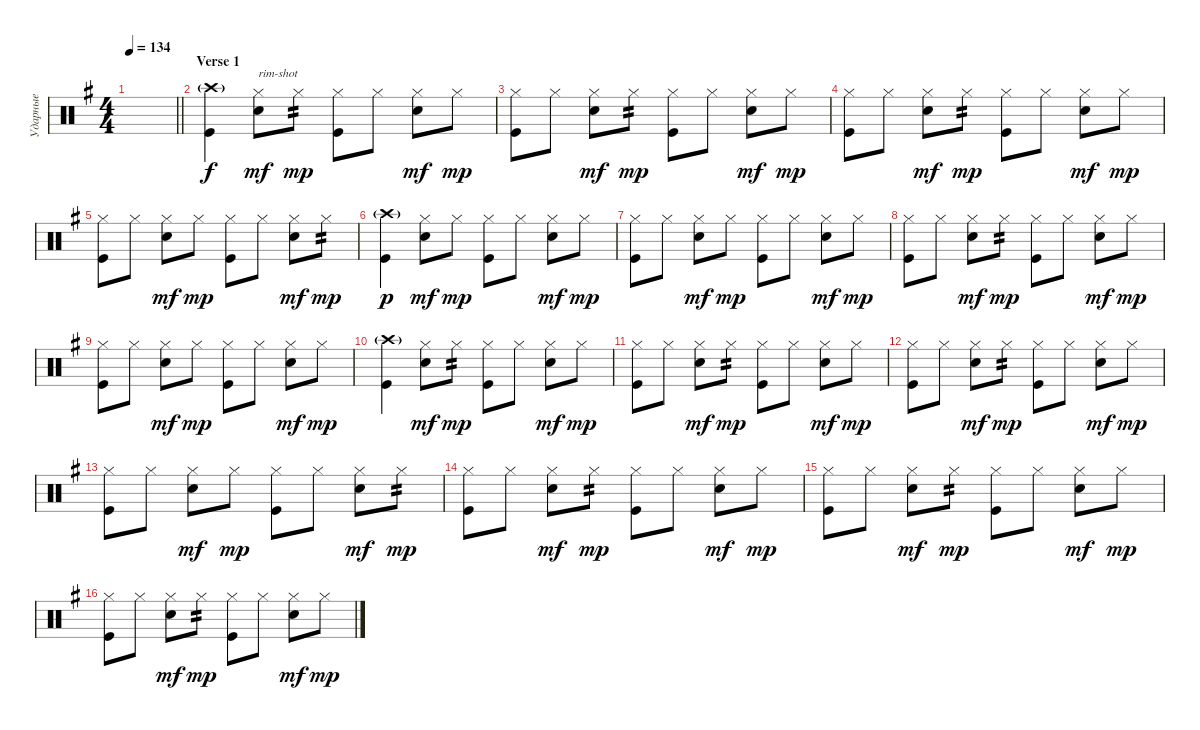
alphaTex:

\track ("Ударные" "Ударные") {instrument percussion}
\staff {score}
\articulation defaults
\ts (4 4)
\tempo 134
\clef neutral
\barLineRight lightlight
\ks eminor
|
\section ("" "Verse 1")
("Kick (hit)" "Crash high (hit)"{g}).4 ("Hi-Hat (closed)" "Electric Snare (hit)").8{txt "rim-shot" dy mf} "Hi-Hat (closed)".8{tp 2 dy mp} ("Hi-Hat (closed)" "Kick (hit)").8 "Hi-Hat (closed)".8 ("Hi-Hat (closed)" "Electric Snare (hit)").8{dy mf} "Hi-Hat (closed)".8{dy mp} |
("Hi-Hat (closed)" "Kick (hit)").8 "Hi-Hat (closed)".8 ("Hi-Hat (closed)" "Electric Snare (hit)").8{dy mf} "Hi-Hat (closed)".8{tp 2 dy mp} ("Hi-Hat (closed)" "Kick (hit)").8 "Hi-Hat (closed)".8 ("Hi-Hat (closed)" "Electric Snare (hit)").8{dy mf} "Hi-Hat (closed)".8{dy mp} |
("Hi-Hat (closed)" "Kick (hit)").8 "Hi-Hat (closed)".8 ("Hi-Hat (closed)" "Electric Snare (hit)").8{dy mf} "Hi-Hat (closed)".8{tp 2 dy mp} ("Hi-Hat (closed)" "Kick (hit)").8 "Hi-Hat (closed)".8 ("Hi-Hat (closed)" "Electric Snare (hit)").8{dy mf} "Hi-Hat (closed)".8{dy mp} |
("Hi-Hat (closed)" "Kick (hit)").8 "Hi-Hat (closed)".8 ("Hi-Hat (closed)" "Electric Snare (hit)").8{dy mf} "Hi-Hat (closed)".8{dy mp} ("Hi-Hat (closed)" "Kick (hit)").8 "Hi-Hat (closed)".8 ("Hi-Hat (closed)" "Electric Snare (hit)").8{dy mf} "Hi-Hat (closed)".8{tp 2 dy mp} |
("Kick (hit)" "Crash high (hit)"{g}).4{dy p} ("Hi-Hat (closed)" "Electric Snare (hit)").8{dy mf} "Hi-Hat (closed)".8{dy mp} ("Hi-Hat (closed)" "Kick (hit)").8 "Hi-Hat (closed)".8 ("Hi-Hat (closed)" "Electric Snare (hit)").8{dy mf} "Hi-Hat (closed)".8{dy mp} |
("Hi-Hat (closed)" "Kick (hit)").8 "Hi-Hat (closed)".8 ("Hi-Hat (closed)" "Electric Snare (hit)").8{dy mf} "Hi-Hat (closed)".8{dy mp} ("Hi-Hat (closed)" "Kick (hit)").8 "Hi-Hat (closed)".8 ("Hi-Hat (closed)" "Electric Snare (hit)").8{dy mf} "Hi-Hat (closed)".8{dy mp} |
("Hi-Hat (closed)" "Kick (hit)").8 "Hi-Hat (closed)".8 ("Hi-Hat (closed)" "Electric Snare (hit)").8{dy mf} "Hi-Hat (closed)".8{tp 2 dy mp} ("Hi-Hat (closed)" "Kick (hit)").8 "Hi-Hat (closed)".8 ("Hi-Hat (closed)" "Electric Snare (hit)").8{dy mf} "Hi-Hat (closed)".8{dy mp} |
("Hi-Hat (closed)" "Kick (hit)").8 "Hi-Hat (closed)".8 ("Hi-Hat (closed)" "Electric Snare (hit)").8{dy mf} "Hi-Hat (closed)".8{dy mp} ("Hi-Hat (closed)" "Kick (hit)").8 "Hi-Hat (closed)".8 ("Hi-Hat (closed)" "Electric Snare (hit)").8{dy mf} "Hi-Hat (closed)".8{dy mp} |
("Kick (hit)" "Crash high (hit)"{g}).4 ("Hi-Hat (closed)" "Electric Snare (hit)").8{dy mf} "Hi-Hat (closed)".8{tp 2 dy mp} ("Hi-Hat (closed)" "Kick (hit)").8 "Hi-Hat (closed)".8 ("Hi-Hat (closed)" "Electric Snare (hit)").8{dy mf} "Hi-Hat (closed)".8{dy mp} |
("Hi-Hat (closed)" "Kick (hit)").8 "Hi-Hat (closed)".8 ("Hi-Hat (closed)" "Electric Snare (hit)").8{dy mf} "Hi-Hat (closed)".8{tp 2 dy mp} ("Hi-Hat (closed)" "Kick (hit)").8 "Hi-Hat (closed)".8 ("Hi-Hat (closed)" "Electric Snare (hit)").8{dy mf} "Hi-Hat (closed)".8{dy mp} |
("Hi-Hat (closed)" "Kick (hit)").8 "Hi-Hat (closed)".8 ("Hi-Hat (closed)" "Electric Snare (hit)").8{dy mf} "Hi-Hat (closed)".8{tp 2 dy mp} ("Hi-Hat (closed)" "Kick (hit)").8 "Hi-Hat (closed)".8 ("Hi-Hat (closed)" "Electric Snare (hit)").8{dy mf} "Hi-Hat (closed)".8{dy mp} |
("Hi-Hat (closed)" "Kick (hit)").8 "Hi-Hat (closed)".8 ("Hi-Hat (closed)" "Electric Snare (hit)").8{dy mf} "Hi-Hat (closed)".8{dy mp} ("Hi-Hat (closed)" "Kick (hit)").8 "Hi-Hat (closed)".8 ("Hi-Hat (closed)" "Electric Snare (hit)").8{dy mf} "Hi-Hat (closed)".8{tp 2 dy mp} |
("Hi-Hat (closed)" "Kick (hit)").8 "Hi-Hat (closed)".8 ("Hi-Hat (closed)" "Electric Snare (hit)").8{dy mf} "Hi-Hat (closed)".8{tp 2 dy mp} ("Hi-Hat (closed)" "Kick (hit)").8 "Hi-Hat (closed)".8 ("Hi-Hat (closed)" "Electric Snare (hit)").8{dy mf} "Hi-Hat (closed)".8{dy mp} |
("Hi-Hat (closed)" "Kick (hit)").8 "Hi-Hat (closed)".8 ("Hi-Hat (closed)" "Electric Snare (hit)").8{dy mf} "Hi-Hat (closed)".8{tp 2 dy mp} ("Hi-Hat (closed)" "Kick (hit)").8 "Hi-Hat (closed)".8 ("Hi-Hat (closed)" "Electric Snare (hit)").8{dy mf} "Hi-Hat (closed)".8{dy mp} |
("Hi-Hat (closed)" "Kick (hit)").8 "Hi-Hat (closed)".8 ("Hi-Hat (closed)" "Electric Snare (hit)").8{dy mf} "Hi-Hat (closed)".8{tp 2 dy mp} ("Hi-Hat (closed)" "Kick (hit)").8 "Hi-Hat (closed)".8 ("Hi-Hat (closed)" "Electric Snare (hit)").8{dy mf} "Hi-Hat (closed)".8{dy mp}
